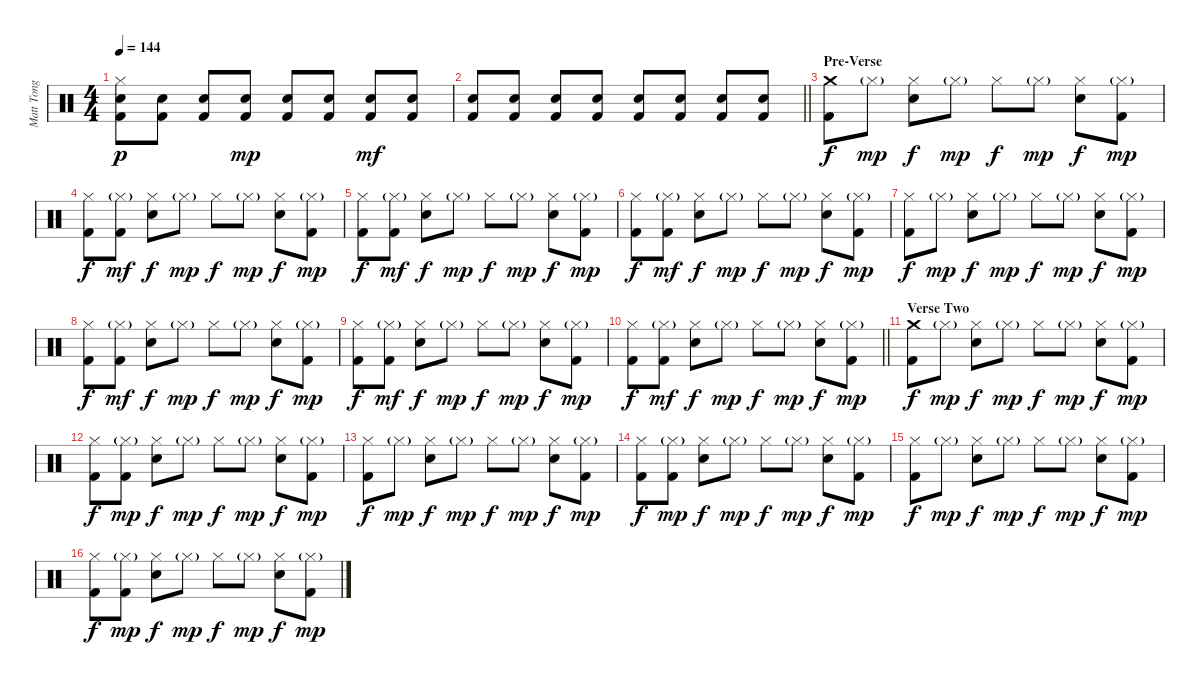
\track ("Matt Tong" "Matt Tong") {instrument percussion}
\staff {score}
\articulation defaults
\ts (4 4)
\tempo 144
\clef neutral
\ks c
("Hi-Hat (closed)" "Electric Snare (hit)" "Kick (hit) 2").8{dy p} ("Electric Snare (hit)" "Kick (hit) 2").8 ("Electric Snare (hit)" "Kick (hit) 2").8 ("Electric Snare (hit)" "Kick (hit) 2").8{dy mp} ("Electric Snare (hit)" "Kick (hit) 2").8 ("Electric Snare (hit)" "Kick (hit) 2").8 ("Electric Snare (hit)" "Kick (hit) 2").8{dy mf} ("Electric Snare (hit)" "Kick (hit) 2").8 |
\barLineRight lightlight
("Electric Snare (hit)" "Kick (hit) 2").8 ("Electric Snare (hit)" "Kick (hit) 2").8 ("Electric Snare (hit)" "Kick (hit) 2").8 ("Electric Snare (hit)" "Kick (hit) 2").8 ("Electric Snare (hit)" "Kick (hit) 2").8 ("Electric Snare (hit)" "Kick (hit) 2").8 ("Electric Snare (hit)" "Kick (hit) 2").8 ("Electric Snare (hit)" "Kick (hit) 2").8 |
\section ("" "Pre-Verse")
("Crash medium (hit)" "Kick (hit) 2").8{dy f} "Hi-Hat (closed)"{g}.8{dy mp} ("Hi-Hat (closed)" "Electric Snare (hit)").8{dy f} "Hi-Hat (closed)"{g}.8{dy mp} "Hi-Hat (closed)".8{dy f} "Hi-Hat (closed)"{g}.8{dy mp} ("Hi-Hat (closed)" "Electric Snare (hit)").8{dy f} ("Hi-Hat (closed)"{g} "Kick (hit) 2").8{dy mp} |
("Hi-Hat (closed)" "Kick (hit) 2").8{dy f} ("Hi-Hat (closed)"{g} "Kick (hit) 2").8{dy mf} ("Hi-Hat (closed)" "Electric Snare (hit)").8{dy f} "Hi-Hat (closed)"{g}.8{dy mp} "Hi-Hat (closed)".8{dy f} "Hi-Hat (closed)"{g}.8{dy mp} ("Hi-Hat (closed)" "Electric Snare (hit)").8{dy f} ("Hi-Hat (closed)"{g} "Kick (hit) 2").8{dy mp} |
("Hi-Hat (closed)" "Kick (hit) 2").8{dy f} ("Hi-Hat (closed)"{g} "Kick (hit) 2").8{dy mf} ("Hi-Hat (closed)" "Electric Snare (hit)").8{dy f} "Hi-Hat (closed)"{g}.8{dy mp} "Hi-Hat (closed)".8{dy f} "Hi-Hat (closed)"{g}.8{dy mp} ("Hi-Hat (closed)" "Electric Snare (hit)").8{dy f} ("Hi-Hat (closed)"{g} "Kick (hit) 2").8{dy mp} |
("Hi-Hat (closed)" "Kick (hit) 2").8{dy f} ("Hi-Hat (closed)"{g} "Kick (hit) 2").8{dy mf} ("Hi-Hat (closed)" "Electric Snare (hit)").8{dy f} "Hi-Hat (closed)"{g}.8{dy mp} "Hi-Hat (closed)".8{dy f} "Hi-Hat (closed)"{g}.8{dy mp} ("Hi-Hat (closed)" "Electric Snare (hit)").8{dy f} ("Hi-Hat (closed)"{g} "Kick (hit) 2").8{dy mp} |
("Hi-Hat (closed)" "Kick (hit) 2").8{dy f} "Hi-Hat (closed)"{g}.8{dy mp} ("Hi-Hat (closed)" "Electric Snare (hit)").8{dy f} "Hi-Hat (closed)"{g}.8{dy mp} "Hi-Hat (closed)".8{dy f} "Hi-Hat (closed)"{g}.8{dy mp} ("Hi-Hat (closed)" "Electric Snare (hit)").8{dy f} ("Hi-Hat (closed)"{g} "Kick (hit) 2").8{dy mp} |
("Hi-Hat (closed)" "Kick (hit) 2").8{dy f} ("Hi-Hat (closed)"{g} "Kick (hit) 2").8{dy mf} ("Hi-Hat (closed)" "Electric Snare (hit)").8{dy f} "Hi-Hat (closed)"{g}.8{dy mp} "Hi-Hat (closed)".8{dy f} "Hi-Hat (closed)"{g}.8{dy mp} ("Hi-Hat (closed)" "Electric Snare (hit)").8{dy f} ("Hi-Hat (closed)"{g} "Kick (hit) 2").8{dy mp} |
("Hi-Hat (closed)" "Kick (hit) 2").8{dy f} ("Hi-Hat (closed)"{g} "Kick (hit) 2").8{dy mf} ("Hi-Hat (closed)" "Electric Snare (hit)").8{dy f} "Hi-Hat (closed)"{g}.8{dy mp} "Hi-Hat (closed)".8{dy f} "Hi-Hat (closed)"{g}.8{dy mp} ("Hi-Hat (closed)" "Electric Snare (hit)").8{dy f} ("Hi-Hat (closed)"{g} "Kick (hit) 2").8{dy mp} |
\barLineRight lightlight
("Hi-Hat (closed)" "Kick (hit) 2").8{dy f} ("Hi-Hat (closed)"{g} "Kick (hit) 2").8{dy mf} ("Hi-Hat (closed)" "Electric Snare (hit)").8{dy f} "Hi-Hat (closed)"{g}.8{dy mp} "Hi-Hat (closed)".8{dy f} "Hi-Hat (closed)"{g}.8{dy mp} ("Hi-Hat (closed)" "Electric Snare (hit)").8{dy f} ("Hi-Hat (closed)"{g} "Kick (hit) 2").8{dy mp} |
\section ("" "Verse Two")
("Crash medium (hit)" "Kick (hit) 2").8{dy f} "Hi-Hat (closed)"{g}.8{dy mp} ("Hi-Hat (closed)" "Electric Snare (hit)").8{dy f} "Hi-Hat (closed)"{g}.8{dy mp} "Hi-Hat (closed)".8{dy f} "Hi-Hat (closed)"{g}.8{dy mp} ("Hi-Hat (closed)" "Electric Snare (hit)").8{dy f} ("Hi-Hat (closed)"{g} "Kick (hit) 2").8{dy mp} |
("Hi-Hat (closed)" "Kick (hit) 2").8{dy f} ("Hi-Hat (closed)"{g} "Kick (hit) 2").8{dy mp} ("Hi-Hat (closed)" "Electric Snare (hit)").8{dy f} "Hi-Hat (closed)"{g}.8{dy mp} "Hi-Hat (closed)".8{dy f} "Hi-Hat (closed)"{g}.8{dy mp} ("Hi-Hat (closed)" "Electric Snare (hit)").8{dy f} ("Hi-Hat (closed)"{g} "Kick (hit) 2").8{dy mp} |
("Hi-Hat (closed)" "Kick (hit) 2").8{dy f} "Hi-Hat (closed)"{g}.8{dy mp} ("Hi-Hat (closed)" "Electric Snare (hit)").8{dy f} "Hi-Hat (closed)"{g}.8{dy mp} "Hi-Hat (closed)".8{dy f} "Hi-Hat (closed)"{g}.8{dy mp} ("Hi-Hat (closed)" "Electric Snare (hit)").8{dy f} ("Hi-Hat (closed)"{g} "Kick (hit) 2").8{dy mp} |
("Hi-Hat (closed)" "Kick (hit) 2").8{dy f} ("Hi-Hat (closed)"{g} "Kick (hit) 2").8{dy mp} ("Hi-Hat (closed)" "Electric Snare (hit)").8{dy f} "Hi-Hat (closed)"{g}.8{dy mp} "Hi-Hat (closed)".8{dy f} "Hi-Hat (closed)"{g}.8{dy mp} ("Hi-Hat (closed)" "Electric Snare (hit)").8{dy f} ("Hi-Hat (closed)"{g} "Kick (hit) 2").8{dy mp} |
("Hi-Hat (closed)" "Kick (hit) 2").8{dy f} "Hi-Hat (closed)"{g}.8{dy mp} ("Hi-Hat (closed)" "Electric Snare (hit)").8{dy f} "Hi-Hat (closed)"{g}.8{dy mp} "Hi-Hat (closed)".8{dy f} "Hi-Hat (closed)"{g}.8{dy mp} ("Hi-Hat (closed)" "Electric Snare (hit)").8{dy f} ("Hi-Hat (closed)"{g} "Kick (hit) 2").8{dy mp} |
("Hi-Hat (closed)" "Kick (hit) 2").8{dy f} ("Hi-Hat (closed)"{g} "Kick (hit) 2").8{dy mp} ("Hi-Hat (closed)" "Electric Snare (hit)").8{dy f} "Hi-Hat (closed)"{g}.8{dy mp} "Hi-Hat (closed)".8{dy f} "Hi-Hat (closed)"{g}.8{dy mp} ("Hi-Hat (closed)" "Electric Snare (hit)").8{dy f} ("Hi-Hat (closed)"{g} "Kick (hit) 2").8{dy mp}
